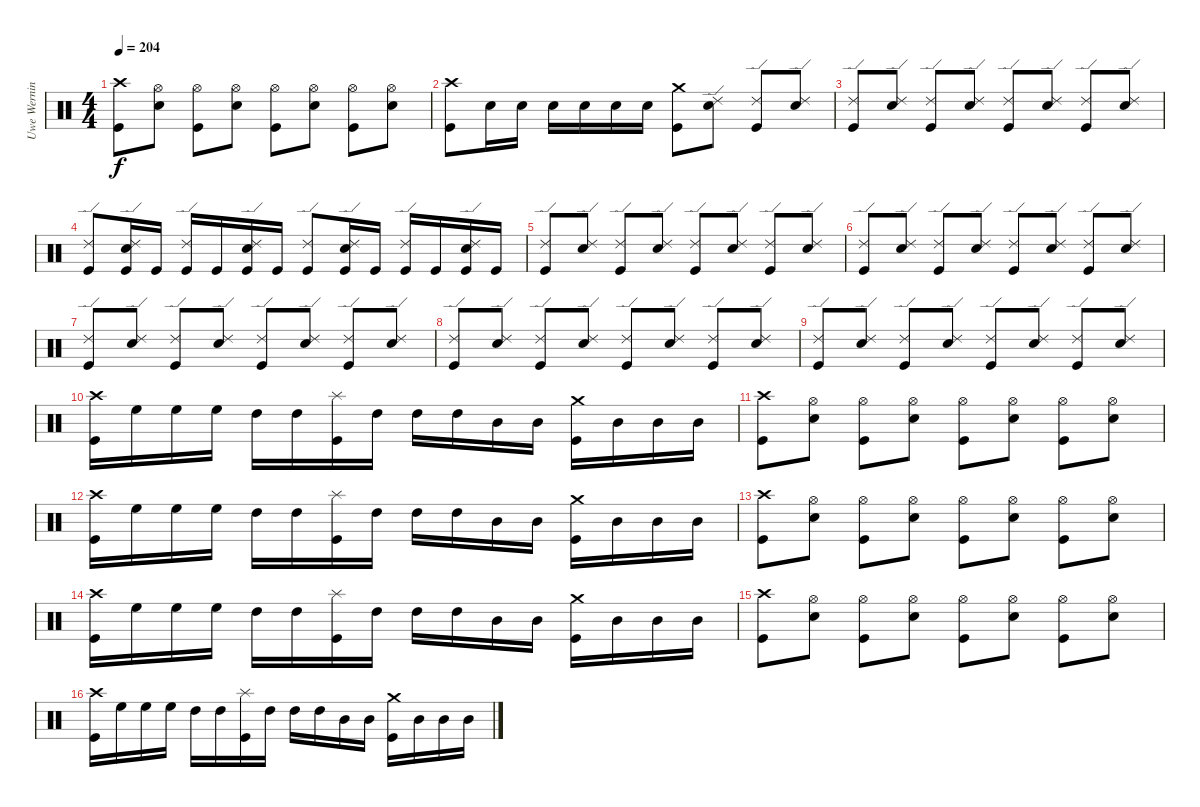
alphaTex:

\track ("Uwe Werning" "Uwe Wernin") {instrument percussion}
\staff {score}
\articulation defaults
\ts (4 4)
\tempo 204
\clef neutral
\ks c
("Crash high (hit)" "Kick (hit)").8{dy f} ("Hi-Hat (open)" "Snare (hit) 2").8 ("Hi-Hat (open)" "Kick (hit)").8 ("Hi-Hat (open)" "Snare (hit) 2").8 ("Hi-Hat (open)" "Kick (hit)").8 ("Hi-Hat (open)" "Snare (hit) 2").8 ("Hi-Hat (open)" "Kick (hit)").8 ("Hi-Hat (open)" "Snare (hit) 2").8 |
("Crash high (hit)" "Kick (hit)").8 "Snare (hit) 2".16 "Snare (hit) 2".16 "Snare (hit) 2".16 "Snare (hit) 2".16 "Snare (hit) 2".16 "Snare (hit) 2".16 ("Crash medium (hit)" "Kick (hit)").8 ("Ride (edge) 2" "Snare (hit) 2").8 ("Ride (edge) 2" "Kick (hit)").8 ("Ride (edge) 2" "Snare (hit) 2").8 |
("Ride (edge) 2" "Kick (hit)").8 ("Ride (edge) 2" "Snare (hit) 2").8 ("Ride (edge) 2" "Kick (hit)").8 ("Ride (edge) 2" "Snare (hit) 2").8 ("Ride (edge) 2" "Kick (hit)").8 ("Ride (edge) 2" "Snare (hit) 2").8 ("Ride (edge) 2" "Kick (hit)").8 ("Ride (edge) 2" "Snare (hit) 2").8 |
("Ride (edge) 2" "Kick (hit)").8 ("Ride (edge) 2" "Snare (hit) 2" "Kick (hit)").16 "Kick (hit)".16 ("Ride (edge) 2" "Kick (hit)").16 "Kick (hit)".16 ("Ride (edge) 2" "Snare (hit) 2" "Kick (hit)").16 "Kick (hit)".16 ("Ride (edge) 2" "Kick (hit)").8 ("Ride (edge) 2" "Snare (hit) 2" "Kick (hit)").16 "Kick (hit)".16 ("Ride (edge) 2" "Kick (hit)").16 "Kick (hit)".16 ("Ride (edge) 2" "Snare (hit) 2" "Kick (hit)").16 "Kick (hit)".16 |
("Ride (edge) 2" "Kick (hit)").8 ("Ride (edge) 2" "Snare (hit) 2").8 ("Ride (edge) 2" "Kick (hit)").8 ("Ride (edge) 2" "Snare (hit) 2").8 ("Ride (edge) 2" "Kick (hit)").8 ("Ride (edge) 2" "Snare (hit) 2").8 ("Ride (edge) 2" "Kick (hit)").8 ("Ride (edge) 2" "Snare (hit) 2").8 |
("Ride (edge) 2" "Kick (hit)").8 ("Ride (edge) 2" "Snare (hit) 2").8 ("Ride (edge) 2" "Kick (hit)").8 ("Ride (edge) 2" "Snare (hit) 2").8 ("Ride (edge) 2" "Kick (hit)").8 ("Ride (edge) 2" "Snare (hit) 2").8 ("Ride (edge) 2" "Kick (hit)").8 ("Ride (edge) 2" "Snare (hit) 2").8 |
("Ride (edge) 2" "Kick (hit)").8 ("Ride (edge) 2" "Snare (hit) 2").8 ("Ride (edge) 2" "Kick (hit)").8 ("Ride (edge) 2" "Snare (hit) 2").8 ("Ride (edge) 2" "Kick (hit)").8 ("Ride (edge) 2" "Snare (hit) 2").8 ("Ride (edge) 2" "Kick (hit)").8 ("Ride (edge) 2" "Snare (hit) 2").8 |
("Ride (edge) 2" "Kick (hit)").8 ("Ride (edge) 2" "Snare (hit) 2").8 ("Ride (edge) 2" "Kick (hit)").8 ("Ride (edge) 2" "Snare (hit) 2").8 ("Ride (edge) 2" "Kick (hit)").8 ("Ride (edge) 2" "Snare (hit) 2").8 ("Ride (edge) 2" "Kick (hit)").8 ("Ride (edge) 2" "Snare (hit) 2").8 |
("Ride (edge) 2" "Kick (hit)").8 ("Ride (edge) 2" "Snare (hit) 2").8 ("Ride (edge) 2" "Kick (hit)").8 ("Ride (edge) 2" "Snare (hit) 2").8 ("Ride (edge) 2" "Kick (hit)").8 ("Ride (edge) 2" "Snare (hit) 2").8 ("Ride (edge) 2" "Kick (hit)").8 ("Ride (edge) 2" "Snare (hit) 2").8 |
("Crash high (hit)" "Kick (hit)").16 "High Floor Tom (hit)".16 "High Floor Tom (hit)".16 "High Floor Tom (hit)".16 "High Tom (hit)".16 "High Tom (hit)".16 ("Splash (hit)" "Kick (hit)").16 "High Tom (hit)".16 "High Tom (hit)".16 "High Tom (hit)".16 "Mid Tom (hit)".16 "Mid Tom (hit)".16 ("Crash medium (hit)" "Kick (hit)").16 "Mid Tom (hit)".16 "Mid Tom (hit)".16 "Mid Tom (hit)".16 |
("Crash high (hit)" "Kick (hit)").8 ("Hi-Hat (open)" "Snare (hit) 2").8 ("Hi-Hat (open)" "Kick (hit)").8 ("Hi-Hat (open)" "Snare (hit) 2").8 ("Hi-Hat (open)" "Kick (hit)").8 ("Hi-Hat (open)" "Snare (hit) 2").8 ("Hi-Hat (open)" "Kick (hit)").8 ("Hi-Hat (open)" "Snare (hit) 2").8 |
("Crash high (hit)" "Kick (hit)").16 "High Floor Tom (hit)".16 "High Floor Tom (hit)".16 "High Floor Tom (hit)".16 "High Tom (hit)".16 "High Tom (hit)".16 ("Splash (hit)" "Kick (hit)").16 "High Tom (hit)".16 "High Tom (hit)".16 "High Tom (hit)".16 "Mid Tom (hit)".16 "Mid Tom (hit)".16 ("Crash medium (hit)" "Kick (hit)").16 "Mid Tom (hit)".16 "Mid Tom (hit)".16 "Mid Tom (hit)".16 |
("Crash high (hit)" "Kick (hit)").8 ("Hi-Hat (open)" "Snare (hit) 2").8 ("Hi-Hat (open)" "Kick (hit)").8 ("Hi-Hat (open)" "Snare (hit) 2").8 ("Hi-Hat (open)" "Kick (hit)").8 ("Hi-Hat (open)" "Snare (hit) 2").8 ("Hi-Hat (open)" "Kick (hit)").8 ("Hi-Hat (open)" "Snare (hit) 2").8 |
("Crash high (hit)" "Kick (hit)").16 "High Floor Tom (hit)".16 "High Floor Tom (hit)".16 "High Floor Tom (hit)".16 "High Tom (hit)".16 "High Tom (hit)".16 ("Splash (hit)" "Kick (hit)").16 "High Tom (hit)".16 "High Tom (hit)".16 "High Tom (hit)".16 "Mid Tom (hit)".16 "Mid Tom (hit)".16 ("Crash medium (hit)" "Kick (hit)").16 "Mid Tom (hit)".16 "Mid Tom (hit)".16 "Mid Tom (hit)".16 |
("Crash high (hit)" "Kick (hit)").8 ("Hi-Hat (open)" "Snare (hit) 2").8 ("Hi-Hat (open)" "Kick (hit)").8 ("Hi-Hat (open)" "Snare (hit) 2").8 ("Hi-Hat (open)" "Kick (hit)").8 ("Hi-Hat (open)" "Snare (hit) 2").8 ("Hi-Hat (open)" "Kick (hit)").8 ("Hi-Hat (open)" "Snare (hit) 2").8 |
("Crash high (hit)" "Kick (hit)").16 "High Floor Tom (hit)".16 "High Floor Tom (hit)".16 "High Floor Tom (hit)".16 "High Tom (hit)".16 "High Tom (hit)".16 ("Splash (hit)" "Kick (hit)").16 "High Tom (hit)".16 "High Tom (hit)".16 "High Tom (hit)".16 "Mid Tom (hit)".16 "Mid Tom (hit)".16 ("Crash medium (hit)" "Kick (hit)").16 "Mid Tom (hit)".16 "Mid Tom (hit)".16 "Mid Tom (hit)".16
